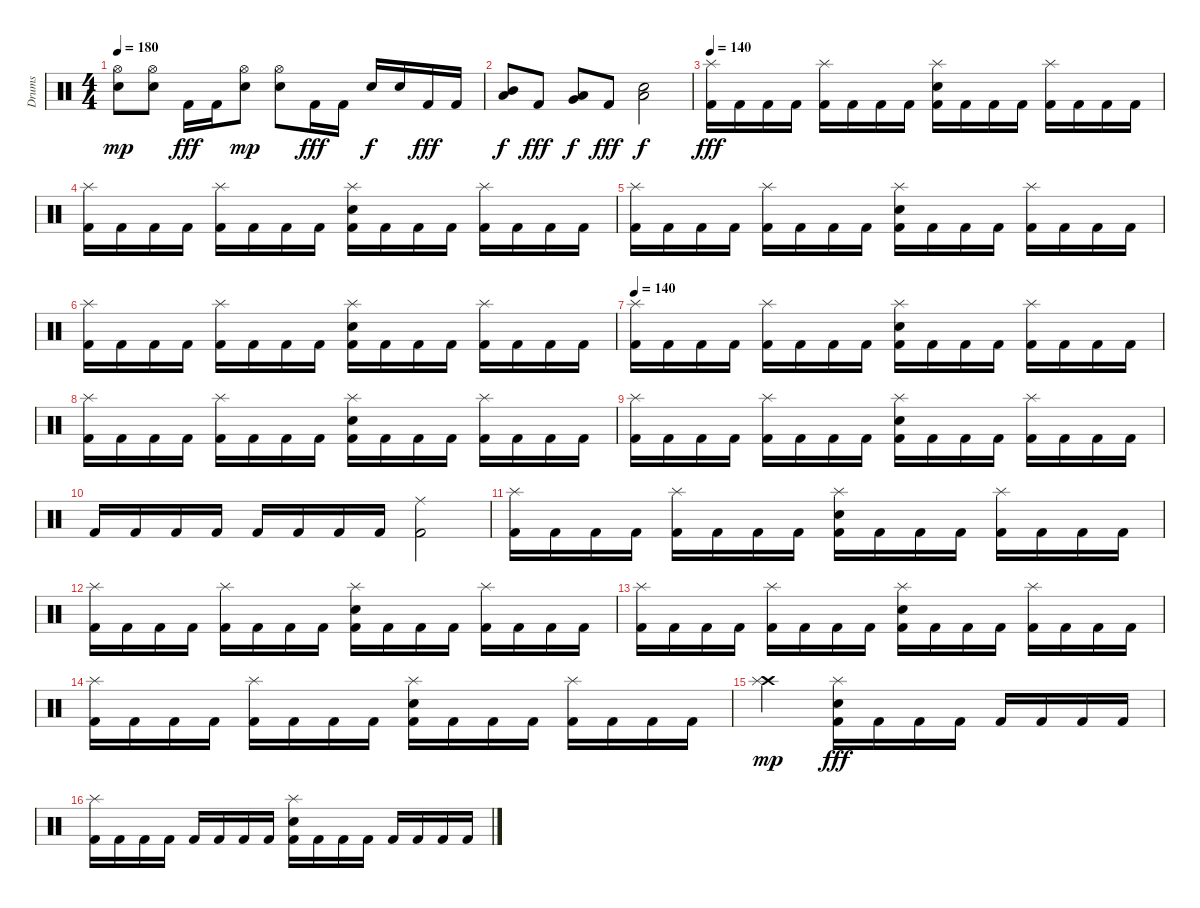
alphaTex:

\track ("Drums" "Drums") {instrument percussion}
\staff {score}
\articulation defaults
\ts (4 4)
\tempo 180
\clef neutral
\ks c
("Hi-Hat (open)" "Electric Snare (hit)").8{dy mp} ("Hi-Hat (open)" "Electric Snare (hit)").8 "Kick (hit) 2".16{dy fff} "Kick (hit) 2".16 ("Hi-Hat (open)" "Electric Snare (hit)").8{dy mp} ("Hi-Hat (open)" "Electric Snare (hit)").8 "Kick (hit) 2".16{dy fff} "Kick (hit) 2".16 "Electric Snare (hit)".16{dy f} "Electric Snare (hit)".16 "Kick (hit) 2".16{dy fff} "Kick (hit) 2".16 |
("Low Tom (hit)" "Mid Tom (hit)").8{dy f} "Kick (hit) 2".8{dy fff} ("Very Low Tom (hit)" "Low Tom (hit)").8{dy f} "Kick (hit) 2".8{dy fff} ("Electric Snare (hit)" "Low Floor Tom (hit)").2{dy f} |
\tempo 140
("Splash (hit)" "Kick (hit) 2").16{dy fff} "Kick (hit) 2".16 "Kick (hit) 2".16 "Kick (hit) 2".16 ("Splash (hit)" "Kick (hit) 2").16 "Kick (hit) 2".16 "Kick (hit) 2".16 "Kick (hit) 2".16 ("Splash (hit)" "Electric Snare (hit)" "Kick (hit) 2").16 "Kick (hit) 2".16 "Kick (hit) 2".16 "Kick (hit) 2".16 ("Splash (hit)" "Kick (hit) 2").16 "Kick (hit) 2".16 "Kick (hit) 2".16 "Kick (hit) 2".16 |
("Splash (hit)" "Kick (hit) 2").16 "Kick (hit) 2".16 "Kick (hit) 2".16 "Kick (hit) 2".16 ("Splash (hit)" "Kick (hit) 2").16 "Kick (hit) 2".16 "Kick (hit) 2".16 "Kick (hit) 2".16 ("Splash (hit)" "Electric Snare (hit)" "Kick (hit) 2").16 "Kick (hit) 2".16 "Kick (hit) 2".16 "Kick (hit) 2".16 ("Splash (hit)" "Kick (hit) 2").16 "Kick (hit) 2".16 "Kick (hit) 2".16 "Kick (hit) 2".16 |
("Splash (hit)" "Kick (hit) 2").16 "Kick (hit) 2".16 "Kick (hit) 2".16 "Kick (hit) 2".16 ("Splash (hit)" "Kick (hit) 2").16 "Kick (hit) 2".16 "Kick (hit) 2".16 "Kick (hit) 2".16 ("Splash (hit)" "Electric Snare (hit)" "Kick (hit) 2").16 "Kick (hit) 2".16 "Kick (hit) 2".16 "Kick (hit) 2".16 ("Splash (hit)" "Kick (hit) 2").16 "Kick (hit) 2".16 "Kick (hit) 2".16 "Kick (hit) 2".16 |
("Splash (hit)" "Kick (hit) 2").16 "Kick (hit) 2".16 "Kick (hit) 2".16 "Kick (hit) 2".16 ("Splash (hit)" "Kick (hit) 2").16 "Kick (hit) 2".16 "Kick (hit) 2".16 "Kick (hit) 2".16 ("Splash (hit)" "Electric Snare (hit)" "Kick (hit) 2").16 "Kick (hit) 2".16 "Kick (hit) 2".16 "Kick (hit) 2".16 ("Splash (hit)" "Kick (hit) 2").16 "Kick (hit) 2".16 "Kick (hit) 2".16 "Kick (hit) 2".16 |
\tempo 140
("Splash (hit)" "Kick (hit) 2").16 "Kick (hit) 2".16 "Kick (hit) 2".16 "Kick (hit) 2".16 ("Splash (hit)" "Kick (hit) 2").16 "Kick (hit) 2".16 "Kick (hit) 2".16 "Kick (hit) 2".16 ("Splash (hit)" "Electric Snare (hit)" "Kick (hit) 2").16 "Kick (hit) 2".16 "Kick (hit) 2".16 "Kick (hit) 2".16 ("Splash (hit)" "Kick (hit) 2").16 "Kick (hit) 2".16 "Kick (hit) 2".16 "Kick (hit) 2".16 |
("Splash (hit)" "Kick (hit) 2").16 "Kick (hit) 2".16 "Kick (hit) 2".16 "Kick (hit) 2".16 ("Splash (hit)" "Kick (hit) 2").16 "Kick (hit) 2".16 "Kick (hit) 2".16 "Kick (hit) 2".16 ("Splash (hit)" "Electric Snare (hit)" "Kick (hit) 2").16 "Kick (hit) 2".16 "Kick (hit) 2".16 "Kick (hit) 2".16 ("Splash (hit)" "Kick (hit) 2").16 "Kick (hit) 2".16 "Kick (hit) 2".16 "Kick (hit) 2".16 |
("Splash (hit)" "Kick (hit) 2").16 "Kick (hit) 2".16 "Kick (hit) 2".16 "Kick (hit) 2".16 ("Splash (hit)" "Kick (hit) 2").16 "Kick (hit) 2".16 "Kick (hit) 2".16 "Kick (hit) 2".16 ("Splash (hit)" "Electric Snare (hit)" "Kick (hit) 2").16 "Kick (hit) 2".16 "Kick (hit) 2".16 "Kick (hit) 2".16 ("Splash (hit)" "Kick (hit) 2").16 "Kick (hit) 2".16 "Kick (hit) 2".16 "Kick (hit) 2".16 |
"Kick (hit) 2".16 "Kick (hit) 2".16 "Kick (hit) 2".16 "Kick (hit) 2".16 "Kick (hit) 2".16 "Kick (hit) 2".16 "Kick (hit) 2".16 "Kick (hit) 2".16 ("Ride (middle)" "Kick (hit) 2").2 |
("Splash (hit)" "Kick (hit) 2").16 "Kick (hit) 2".16 "Kick (hit) 2".16 "Kick (hit) 2".16 ("Splash (hit)" "Kick (hit) 2").16 "Kick (hit) 2".16 "Kick (hit) 2".16 "Kick (hit) 2".16 ("Splash (hit)" "Electric Snare (hit)" "Kick (hit) 2").16 "Kick (hit) 2".16 "Kick (hit) 2".16 "Kick (hit) 2".16 ("Splash (hit)" "Kick (hit) 2").16 "Kick (hit) 2".16 "Kick (hit) 2".16 "Kick (hit) 2".16 |
("Splash (hit)" "Kick (hit) 2").16 "Kick (hit) 2".16 "Kick (hit) 2".16 "Kick (hit) 2".16 ("Splash (hit)" "Kick (hit) 2").16 "Kick (hit) 2".16 "Kick (hit) 2".16 "Kick (hit) 2".16 ("Splash (hit)" "Electric Snare (hit)" "Kick (hit) 2").16 "Kick (hit) 2".16 "Kick (hit) 2".16 "Kick (hit) 2".16 ("Splash (hit)" "Kick (hit) 2").16 "Kick (hit) 2".16 "Kick (hit) 2".16 "Kick (hit) 2".16 |
("Splash (hit)" "Kick (hit) 2").16 "Kick (hit) 2".16 "Kick (hit) 2".16 "Kick (hit) 2".16 ("Splash (hit)" "Kick (hit) 2").16 "Kick (hit) 2".16 "Kick (hit) 2".16 "Kick (hit) 2".16 ("Splash (hit)" "Electric Snare (hit)" "Kick (hit) 2").16 "Kick (hit) 2".16 "Kick (hit) 2".16 "Kick (hit) 2".16 ("Splash (hit)" "Kick (hit) 2").16 "Kick (hit) 2".16 "Kick (hit) 2".16 "Kick (hit) 2".16 |
("Splash (hit)" "Kick (hit) 2").16 "Kick (hit) 2".16 "Kick (hit) 2".16 "Kick (hit) 2".16 ("Splash (hit)" "Kick (hit) 2").16 "Kick (hit) 2".16 "Kick (hit) 2".16 "Kick (hit) 2".16 ("Splash (hit)" "Electric Snare (hit)" "Kick (hit) 2").16 "Kick (hit) 2".16 "Kick (hit) 2".16 "Kick (hit) 2".16 ("Splash (hit)" "Kick (hit) 2").16 "Kick (hit) 2".16 "Kick (hit) 2".16 "Kick (hit) 2".16 |
("Crash high (hit)" "Splash (hit)").2{dy mp} ("Splash (hit)" "Electric Snare (hit)" "Kick (hit) 2").16{dy fff} "Kick (hit) 2".16 "Kick (hit) 2".16 "Kick (hit) 2".16 "Kick (hit) 2".16 "Kick (hit) 2".16 "Kick (hit) 2".16 "Kick (hit) 2".16 |
("Splash (hit)" "Kick (hit) 2").16 "Kick (hit) 2".16 "Kick (hit) 2".16 "Kick (hit) 2".16 "Kick (hit) 2".16 "Kick (hit) 2".16 "Kick (hit) 2".16 "Kick (hit) 2".16 ("Splash (hit)" "Electric Snare (hit)" "Kick (hit) 2").16 "Kick (hit) 2".16 "Kick (hit) 2".16 "Kick (hit) 2".16 "Kick (hit) 2".16 "Kick (hit) 2".16 "Kick (hit) 2".16 "Kick (hit) 2".16
